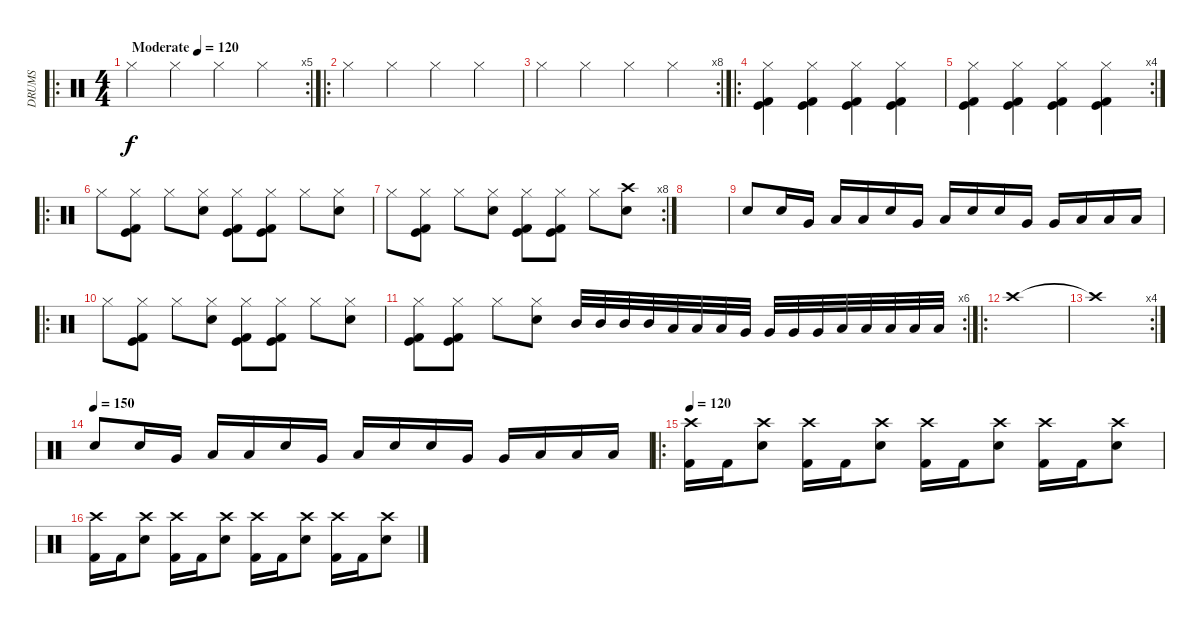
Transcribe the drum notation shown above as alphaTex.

\track ("DRUMS" "DRUMS") {instrument percussion}
\staff {score}
\articulation defaults
\ro
\rc 5
\ts (4 4)
\tempo (120 "Moderate")
\clef neutral
\ks c "Hi-Hat (closed)".4{dy f} "Hi-Hat (closed)".4 "Hi-Hat (closed)".4 "Hi-Hat (closed)".4
|
\ro "Hi-Hat (closed)".4 "Hi-Hat (closed)".4 "Hi-Hat (closed)".4 "Hi-Hat (closed)".4
|
\rc 8 "Hi-Hat (closed)".4 "Hi-Hat (closed)".4 "Hi-Hat (closed)".4 "Hi-Hat (closed)".4
|
\ro
("Hi-Hat (closed)" "Kick (hit)" "Kick (hit) 2").4 ("Hi-Hat (closed)" "Kick (hit)" "Kick (hit) 2").4 ("Hi-Hat (closed)" "Kick (hit)" "Kick (hit) 2").4 ("Hi-Hat (closed)" "Kick (hit)" "Kick (hit) 2").4 |
\rc 4
("Hi-Hat (closed)" "Kick (hit)" "Kick (hit) 2").4 ("Hi-Hat (closed)" "Kick (hit)" "Kick (hit) 2").4 ("Hi-Hat (closed)" "Kick (hit)" "Kick (hit) 2").4 ("Hi-Hat (closed)" "Kick (hit)" "Kick (hit) 2").4 |
\ro "Hi-Hat (closed)".8
("Hi-Hat (closed)" "Kick (hit)" "Kick (hit) 2").8 "Hi-Hat (closed)".8 ("Hi-Hat (closed)" "Snare (hit) 2").8 ("Hi-Hat (closed)" "Kick (hit)" "Kick (hit) 2").8 ("Hi-Hat (closed)" "Kick (hit)" "Kick (hit) 2").8 "Hi-Hat (closed)".8 ("Hi-Hat (closed)" "Snare (hit) 2").8 |
\rc 8 "Hi-Hat (closed)".8
("Hi-Hat (closed)" "Kick (hit)" "Kick (hit) 2").8 "Hi-Hat (closed)".8 ("Hi-Hat (closed)" "Snare (hit) 2").8 ("Hi-Hat (closed)" "Kick (hit)" "Kick (hit) 2").8 ("Hi-Hat (closed)" "Kick (hit)" "Kick (hit) 2").8 "Hi-Hat (closed)".8 ("Crash high (hit)" "Snare (hit) 2").8 |
|
"Electric Snare (hit)".8 "Electric Snare (hit)".16 "Very Low Tom (hit)".16 "Low Floor Tom (hit)".16 "Low Floor Tom (hit)".16 "Electric Snare (hit)".16 "Very Low Tom (hit)".16 "Low Floor Tom (hit)".16 "Electric Snare (hit)".16 "Electric Snare (hit)".16 "Very Low Tom (hit)".16 "Very Low Tom (hit)".16 "Low Floor Tom (hit)".16 "Low Floor Tom (hit)".16 "Low Floor Tom (hit)".16 |
\ro "Hi-Hat (closed)".8
("Hi-Hat (closed)" "Kick (hit)" "Kick (hit) 2").8 "Hi-Hat (closed)".8 ("Hi-Hat (closed)" "Snare (hit) 2").8 ("Hi-Hat (closed)" "Kick (hit)" "Kick (hit) 2").8 ("Hi-Hat (closed)" "Kick (hit)" "Kick (hit) 2").8 "Hi-Hat (closed)".8 ("Hi-Hat (closed)" "Snare (hit) 2").8 |
\rc 6
("Hi-Hat (closed)" "Kick (hit)" "Kick (hit) 2").8 ("Hi-Hat (closed)" "Kick (hit)" "Kick (hit) 2").8 "Hi-Hat (closed)".8 ("Hi-Hat (closed)" "Snare (hit) 2").8 "Mid Tom (hit)".32 "Mid Tom (hit)".32 "Mid Tom (hit)".32 "Mid Tom (hit)".32 "Low Tom (hit)".32 "Low Tom (hit)".32 "Low Tom (hit)".32 "Very Low Tom (hit)".32 "Very Low Tom (hit)".32 "Very Low Tom (hit)".32 "Very Low Tom (hit)".32 "Low Floor Tom (hit)".32 "Low Floor Tom (hit)".32 "Low Floor Tom (hit)".32 "Low Floor Tom (hit)".32 "Low Floor Tom (hit)".32 |
\ro "Crash high (hit)".1
|
\rc 4 "Crash high (hit)"{t}.1
|
\tempo (150)
"Electric Snare (hit)".8 "Electric Snare (hit)".16 "Very Low Tom (hit)".16 "Low Floor Tom (hit)".16 "Low Floor Tom (hit)".16 "Electric Snare (hit)".16 "Very Low Tom (hit)".16 "Low Floor Tom (hit)".16 "Electric Snare (hit)".16 "Electric Snare (hit)".16 "Very Low Tom (hit)".16 "Very Low Tom (hit)".16 "Low Floor Tom (hit)".16 "Low Floor Tom (hit)".16 "Low Floor Tom (hit)".16 |
\ro
\tempo 120
("Crash high (hit)" "Kick (hit) 2").16 "Kick (hit) 2".16 ("Crash high (hit)" "Electric Snare (hit)").8 ("Crash high (hit)" "Kick (hit) 2").16 "Kick (hit) 2".16 ("Crash high (hit)" "Electric Snare (hit)").8 ("Crash high (hit)" "Kick (hit) 2").16 "Kick (hit) 2".16 ("Crash high (hit)" "Electric Snare (hit)").8 ("Crash high (hit)" "Kick (hit) 2").16 "Kick (hit) 2".16 ("Crash high (hit)" "Electric Snare (hit)").8 |
("Crash high (hit)" "Kick (hit) 2").16 "Kick (hit) 2".16 ("Crash high (hit)" "Electric Snare (hit)").8 ("Crash high (hit)" "Kick (hit) 2").16 "Kick (hit) 2".16 ("Crash high (hit)" "Electric Snare (hit)").8 ("Crash high (hit)" "Kick (hit) 2").16 "Kick (hit) 2".16 ("Crash high (hit)" "Electric Snare (hit)").8 ("Crash high (hit)" "Kick (hit) 2").16 "Kick (hit) 2".16 ("Crash high (hit)" "Electric Snare (hit)").8
